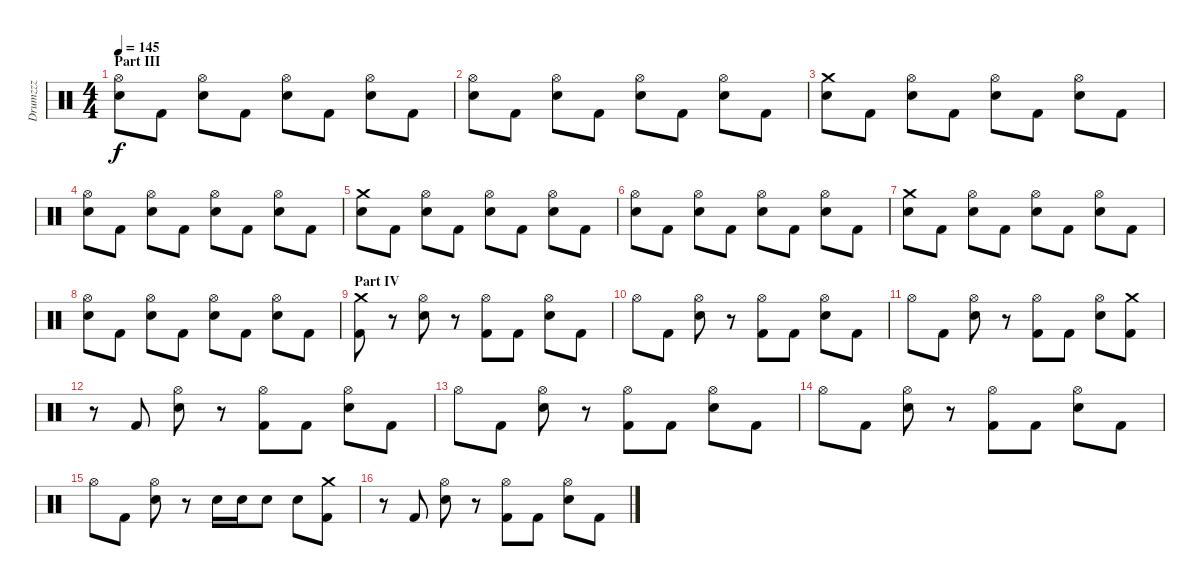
\track ("Drumzzz" "Drumzzz") {instrument percussion}
\staff {score}
\articulation defaults
\ts (4 4)
\section ("" "Part III")
\tempo 145
\clef neutral
\ks c
("Hi-Hat (open)" "Electric Snare (hit)").8{dy f} "Kick (hit) 2".8 ("Hi-Hat (open)" "Electric Snare (hit)").8 "Kick (hit) 2".8 ("Hi-Hat (open)" "Electric Snare (hit)").8 "Kick (hit) 2".8 ("Hi-Hat (open)" "Electric Snare (hit)").8 "Kick (hit) 2".8 |
("Hi-Hat (open)" "Electric Snare (hit)").8 "Kick (hit) 2".8 ("Hi-Hat (open)" "Electric Snare (hit)").8 "Kick (hit) 2".8 ("Hi-Hat (open)" "Electric Snare (hit)").8 "Kick (hit) 2".8 ("Hi-Hat (open)" "Electric Snare (hit)").8 "Kick (hit) 2".8 |
("Crash medium (hit)" "Electric Snare (hit)").8 "Kick (hit) 2".8 ("Hi-Hat (open)" "Electric Snare (hit)").8 "Kick (hit) 2".8 ("Hi-Hat (open)" "Electric Snare (hit)").8 "Kick (hit) 2".8 ("Hi-Hat (open)" "Electric Snare (hit)").8 "Kick (hit) 2".8 |
("Hi-Hat (open)" "Electric Snare (hit)").8 "Kick (hit) 2".8 ("Hi-Hat (open)" "Electric Snare (hit)").8 "Kick (hit) 2".8 ("Hi-Hat (open)" "Electric Snare (hit)").8 "Kick (hit) 2".8 ("Hi-Hat (open)" "Electric Snare (hit)").8 "Kick (hit) 2".8 |
("Crash medium (hit)" "Electric Snare (hit)").8 "Kick (hit) 2".8 ("Hi-Hat (open)" "Electric Snare (hit)").8 "Kick (hit) 2".8 ("Hi-Hat (open)" "Electric Snare (hit)").8 "Kick (hit) 2".8 ("Hi-Hat (open)" "Electric Snare (hit)").8 "Kick (hit) 2".8 |
("Hi-Hat (open)" "Electric Snare (hit)").8 "Kick (hit) 2".8 ("Hi-Hat (open)" "Electric Snare (hit)").8 "Kick (hit) 2".8 ("Hi-Hat (open)" "Electric Snare (hit)").8 "Kick (hit) 2".8 ("Hi-Hat (open)" "Electric Snare (hit)").8 "Kick (hit) 2".8 |
("Crash medium (hit)" "Electric Snare (hit)").8 "Kick (hit) 2".8 ("Hi-Hat (open)" "Electric Snare (hit)").8 "Kick (hit) 2".8 ("Hi-Hat (open)" "Electric Snare (hit)").8 "Kick (hit) 2".8 ("Hi-Hat (open)" "Electric Snare (hit)").8 "Kick (hit) 2".8 |
("Hi-Hat (open)" "Electric Snare (hit)").8 "Kick (hit) 2".8 ("Hi-Hat (open)" "Electric Snare (hit)").8 "Kick (hit) 2".8 ("Hi-Hat (open)" "Electric Snare (hit)").8 "Kick (hit) 2".8 ("Hi-Hat (open)" "Electric Snare (hit)").8 "Kick (hit) 2".8 |
\section ("" "Part IV")
("Crash medium (hit)" "Kick (hit) 2").8 r.8 ("Hi-Hat (open)" "Electric Snare (hit)").8 r.8 ("Hi-Hat (open)" "Kick (hit) 2").8 "Kick (hit) 2".8 ("Hi-Hat (open)" "Electric Snare (hit)").8 "Kick (hit) 2".8 |
"Hi-Hat (open)".8 "Kick (hit) 2".8 ("Hi-Hat (open)" "Electric Snare (hit)").8 r.8 ("Hi-Hat (open)" "Kick (hit) 2").8 "Kick (hit) 2".8 ("Hi-Hat (open)" "Electric Snare (hit)").8 "Kick (hit) 2".8 |
"Hi-Hat (open)".8 "Kick (hit) 2".8 ("Hi-Hat (open)" "Electric Snare (hit)").8 r.8 ("Hi-Hat (open)" "Kick (hit) 2").8 "Kick (hit) 2".8 ("Hi-Hat (open)" "Electric Snare (hit)").8 ("Crash medium (hit)" "Kick (hit) 2").8 |
r.8 "Kick (hit) 2".8 ("Hi-Hat (open)" "Electric Snare (hit)").8 r.8 ("Hi-Hat (open)" "Kick (hit) 2").8 "Kick (hit) 2".8 ("Hi-Hat (open)" "Electric Snare (hit)").8 "Kick (hit) 2".8 |
"Hi-Hat (open)".8 "Kick (hit) 2".8 ("Hi-Hat (open)" "Electric Snare (hit)").8 r.8 ("Hi-Hat (open)" "Kick (hit) 2").8 "Kick (hit) 2".8 ("Hi-Hat (open)" "Electric Snare (hit)").8 "Kick (hit) 2".8 |
"Hi-Hat (open)".8 "Kick (hit) 2".8 ("Hi-Hat (open)" "Electric Snare (hit)").8 r.8 ("Hi-Hat (open)" "Kick (hit) 2").8 "Kick (hit) 2".8 ("Hi-Hat (open)" "Electric Snare (hit)").8 "Kick (hit) 2".8 |
"Hi-Hat (open)".8 "Kick (hit) 2".8 ("Hi-Hat (open)" "Electric Snare (hit)").8 r.8 "Electric Snare (hit)".16 "Electric Snare (hit)".16 "Electric Snare (hit)".8 "Electric Snare (hit)".8 ("Crash medium (hit)" "Kick (hit) 2").8 |
r.8 "Kick (hit) 2".8 ("Hi-Hat (open)" "Electric Snare (hit)").8 r.8 ("Hi-Hat (open)" "Kick (hit) 2").8 "Kick (hit) 2".8 ("Hi-Hat (open)" "Electric Snare (hit)").8 "Kick (hit) 2".8
